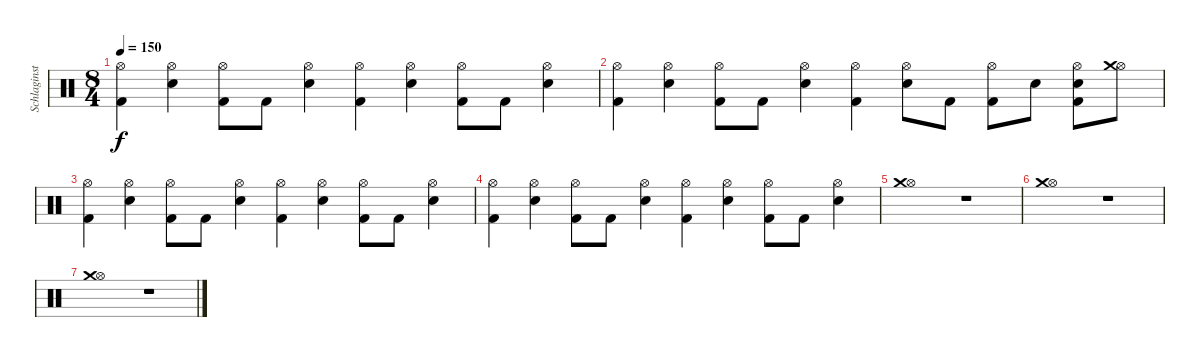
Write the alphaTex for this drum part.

\track ("Schlaginstrumente - Auswahl" "Schlaginst") {instrument percussion}
\staff {score}
\articulation defaults
\ts (8 4)
\tempo 150
\clef neutral
\ks c
("Hi-Hat (open)" "Kick (hit) 2").4{dy f} ("Hi-Hat (open)" "Electric Snare (hit)").4 ("Hi-Hat (open)" "Kick (hit) 2").8 "Kick (hit) 2".8 ("Hi-Hat (open)" "Electric Snare (hit)").4 ("Hi-Hat (open)" "Kick (hit) 2").4 ("Hi-Hat (open)" "Electric Snare (hit)").4 ("Hi-Hat (open)" "Kick (hit) 2").8 "Kick (hit) 2".8 ("Hi-Hat (open)" "Electric Snare (hit)").4 |
("Hi-Hat (open)" "Kick (hit) 2").4 ("Hi-Hat (open)" "Electric Snare (hit)").4 ("Hi-Hat (open)" "Kick (hit) 2").8 "Kick (hit) 2".8 ("Hi-Hat (open)" "Electric Snare (hit)").4 ("Hi-Hat (open)" "Kick (hit) 2").4 ("Hi-Hat (open)" "Electric Snare (hit)").8 "Kick (hit) 2".8 ("Hi-Hat (open)" "Kick (hit) 2").8 "Electric Snare (hit)".8 ("Hi-Hat (open)" "Electric Snare (hit)" "Kick (hit) 2").8 ("Hi-Hat (open)" "Crash medium (hit)").8 |
("Hi-Hat (open)" "Kick (hit) 2").4 ("Hi-Hat (open)" "Electric Snare (hit)").4 ("Hi-Hat (open)" "Kick (hit) 2").8 "Kick (hit) 2".8 ("Hi-Hat (open)" "Electric Snare (hit)").4 ("Hi-Hat (open)" "Kick (hit) 2").4 ("Hi-Hat (open)" "Electric Snare (hit)").4 ("Hi-Hat (open)" "Kick (hit) 2").8 "Kick (hit) 2".8 ("Hi-Hat (open)" "Electric Snare (hit)").4 |
("Hi-Hat (open)" "Kick (hit) 2").4 ("Hi-Hat (open)" "Electric Snare (hit)").4 ("Hi-Hat (open)" "Kick (hit) 2").8 "Kick (hit) 2".8 ("Hi-Hat (open)" "Electric Snare (hit)").4 ("Hi-Hat (open)" "Kick (hit) 2").4 ("Hi-Hat (open)" "Electric Snare (hit)").4 ("Hi-Hat (open)" "Kick (hit) 2").8 "Kick (hit) 2".8 ("Hi-Hat (open)" "Electric Snare (hit)").4 |
("Hi-Hat (open)" "Crash medium (hit)").1 r.1 |
("Hi-Hat (open)" "Crash medium (hit)").1 r.1 |
("Hi-Hat (open)" "Crash medium (hit)").1 r.1
